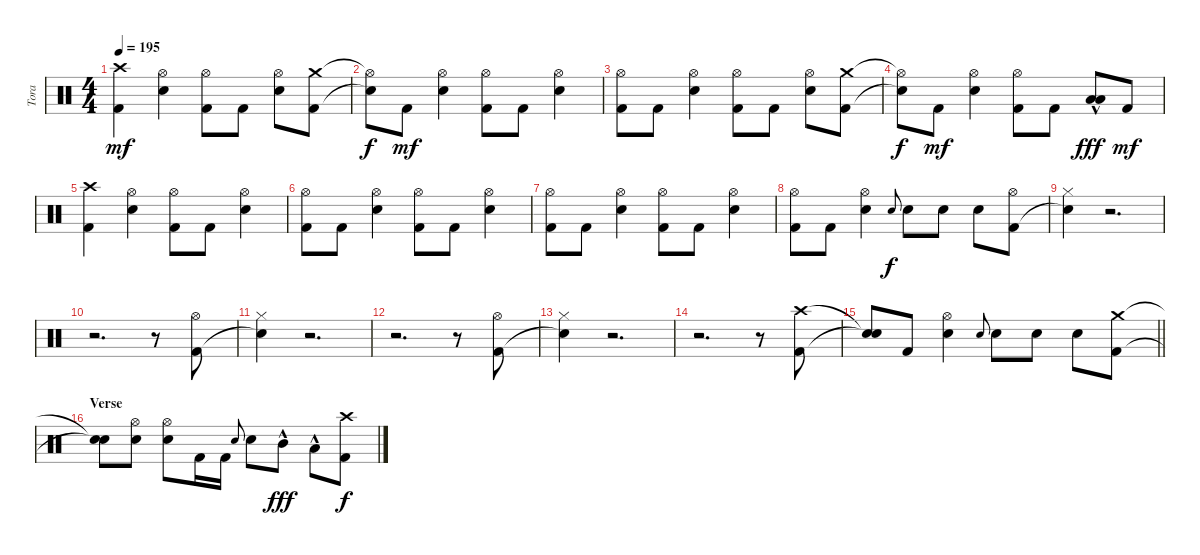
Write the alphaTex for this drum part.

\track ("Tora" "Tora") {instrument percussion}
\staff {score}
\articulation defaults
\ts (4 4)
\tempo 195
\clef neutral
\ks c
("Crash high (hit)" "Kick (hit) 2").4{dy mf} ("Hi-Hat (open)" "Electric Snare (hit)").4 ("Hi-Hat (open)" "Kick (hit) 2").8 "Kick (hit) 2".8 ("Hi-Hat (open)" "Electric Snare (hit)").8 ("Crash medium (hit)" "Kick (hit) 2").8 |
("Hi-Hat (open)"{t} "Snare (hit)"{t}).8{dy f} "Kick (hit) 2".8{dy mf} ("Hi-Hat (open)" "Electric Snare (hit)").4 ("Hi-Hat (open)" "Kick (hit) 2").8 "Kick (hit) 2".8 ("Hi-Hat (open)" "Electric Snare (hit)").4 |
("Hi-Hat (open)" "Kick (hit) 2").8 "Kick (hit) 2".8 ("Hi-Hat (open)" "Electric Snare (hit)").4 ("Hi-Hat (open)" "Kick (hit) 2").8 "Kick (hit) 2".8 ("Hi-Hat (open)" "Electric Snare (hit)").8 ("Crash medium (hit)" "Kick (hit) 2").8 |
("Hi-Hat (open)"{t} "Snare (hit)"{t}).8{dy f} "Kick (hit) 2".8{dy mf} ("Hi-Hat (open)" "Electric Snare (hit)").4 ("Hi-Hat (open)" "Kick (hit) 2").8 "Kick (hit) 2".8 ("Low Tom (hit)"{hac} "Low Tom (hit)"{hac}).8{dy fff} "Kick (hit) 2".8{dy mf} |
("Crash high (hit)" "Kick (hit) 2").4 ("Hi-Hat (open)" "Electric Snare (hit)").4 ("Hi-Hat (open)" "Kick (hit) 2").8 "Kick (hit) 2".8 ("Hi-Hat (open)" "Electric Snare (hit)").4 |
("Hi-Hat (open)" "Kick (hit) 2").8 "Kick (hit) 2".8 ("Hi-Hat (open)" "Electric Snare (hit)").4 ("Hi-Hat (open)" "Kick (hit) 2").8 "Kick (hit) 2".8 ("Hi-Hat (open)" "Electric Snare (hit)").4 |
("Hi-Hat (open)" "Kick (hit) 2").8 "Kick (hit) 2".8 ("Hi-Hat (open)" "Electric Snare (hit)").4 ("Hi-Hat (open)" "Kick (hit) 2").8 "Kick (hit) 2".8 ("Hi-Hat (open)" "Electric Snare (hit)").4 |
("Hi-Hat (open)" "Kick (hit) 2").8 "Kick (hit) 2".8 ("Hi-Hat (open)" "Electric Snare (hit)").4 "Electric Snare (hit)".8{gr onbeat dy f} "Electric Snare (hit)".8 "Electric Snare (hit)".8 "Electric Snare (hit)".8 ("Hi-Hat (open)" "Kick (hit) 2").8 |
("Hi-Hat (closed)" "Snare (hit)"{t}).4 r.2{d} |
r.2{d} r.8 ("Hi-Hat (open)" "Kick (hit) 2").8 |
("Hi-Hat (closed)" "Snare (hit)"{t}).4 r.2{d} |
r.2{d} r.8 ("Hi-Hat (open)" "Kick (hit) 2").8 |
("Hi-Hat (closed)" "Snare (hit)"{t}).4 r.2{d} |
r.2{d} r.8 ("Crash high (hit)" "Kick (hit) 2").8 |
\barLineRight lightlight
("Snare (hit)"{t} "Snare (hit)"{t}).8 "Kick (hit) 2".8 ("Hi-Hat (open)" "Electric Snare (hit)").4 "Electric Snare (hit)".8{gr onbeat} "Electric Snare (hit)".8 "Electric Snare (hit)".8 "Electric Snare (hit)".8 ("Crash medium (hit)" "Kick (hit) 2").8 |
\section ("" "Verse")
("Snare (hit)"{t} "Snare (hit)"{t}).8 ("Hi-Hat (open)" "Electric Snare (hit)").8 ("Hi-Hat (open)" "Electric Snare (hit)").8 "Kick (hit) 2".16 "Kick (hit) 2".16 "Electric Snare (hit)".8{gr onbeat} "Electric Snare (hit)".8 "Mid Tom (hit)"{hac}.8{dy fff} "Low Tom (hit)"{hac}.8 ("Crash high (hit)" "Kick (hit) 2").8{dy f}
